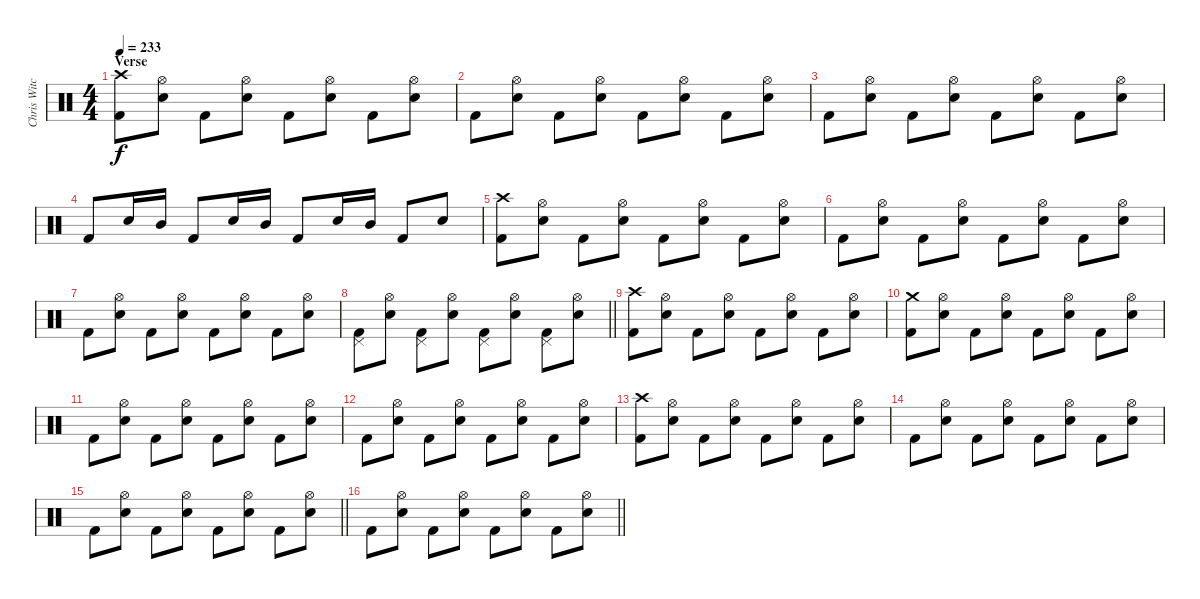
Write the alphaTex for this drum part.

\track ("Chris Witchunter" "Chris Witc") {instrument percussion}
\staff {score}
\articulation defaults
\ts (4 4)
\section ("" "Verse")
\tempo 233
\clef neutral
\ks c
("Crash high (hit)" "Kick (hit) 2").8{dy f} ("Hi-Hat (open)" "Snare (hit) 2").8 "Kick (hit) 2".8 ("Hi-Hat (open)" "Snare (hit) 2").8 "Kick (hit) 2".8 ("Hi-Hat (open)" "Snare (hit) 2").8 "Kick (hit) 2".8 ("Hi-Hat (open)" "Snare (hit) 2").8 |
"Kick (hit) 2".8 ("Hi-Hat (open)" "Snare (hit) 2").8 "Kick (hit) 2".8 ("Hi-Hat (open)" "Snare (hit) 2").8 "Kick (hit) 2".8 ("Hi-Hat (open)" "Snare (hit) 2").8 "Kick (hit) 2".8 ("Hi-Hat (open)" "Snare (hit) 2").8 |
"Kick (hit) 2".8 ("Hi-Hat (open)" "Snare (hit) 2").8 "Kick (hit) 2".8 ("Hi-Hat (open)" "Snare (hit) 2").8 "Kick (hit) 2".8 ("Hi-Hat (open)" "Snare (hit) 2").8 "Kick (hit) 2".8 ("Hi-Hat (open)" "Snare (hit) 2").8 |
"Kick (hit) 2".8 "Snare (hit) 2".16 "Mid Tom (hit)".16 "Kick (hit) 2".8 "Snare (hit) 2".16 "Mid Tom (hit)".16 "Kick (hit) 2".8 "Snare (hit) 2".16 "Mid Tom (hit)".16 "Kick (hit) 2".8 "Snare (hit) 2".8 |
("Crash high (hit)" "Kick (hit) 2").8 ("Hi-Hat (open)" "Snare (hit) 2").8 "Kick (hit) 2".8 ("Hi-Hat (open)" "Snare (hit) 2").8 "Kick (hit) 2".8 ("Hi-Hat (open)" "Snare (hit) 2").8 "Kick (hit) 2".8 ("Hi-Hat (open)" "Snare (hit) 2").8 |
"Kick (hit) 2".8 ("Hi-Hat (open)" "Snare (hit) 2").8 "Kick (hit) 2".8 ("Hi-Hat (open)" "Snare (hit) 2").8 "Kick (hit) 2".8 ("Hi-Hat (open)" "Snare (hit) 2").8 "Kick (hit) 2".8 ("Hi-Hat (open)" "Snare (hit) 2").8 |
"Kick (hit) 2".8 ("Hi-Hat (open)" "Snare (hit) 2").8 "Kick (hit) 2".8 ("Hi-Hat (open)" "Snare (hit) 2").8 "Kick (hit) 2".8 ("Hi-Hat (open)" "Snare (hit) 2").8 "Kick (hit) 2".8 ("Hi-Hat (open)" "Snare (hit) 2").8 |
\barLineRight lightlight
("Pedal Hi-Hat (hit)" "Kick (hit) 2").8 ("Hi-Hat (open)" "Snare (hit) 2").8 ("Pedal Hi-Hat (hit)" "Kick (hit) 2").8 ("Hi-Hat (open)" "Snare (hit) 2").8 ("Pedal Hi-Hat (hit)" "Kick (hit) 2").8 ("Hi-Hat (open)" "Snare (hit) 2").8 ("Pedal Hi-Hat (hit)" "Kick (hit) 2").8 ("Hi-Hat (open)" "Snare (hit) 2").8 |
("Crash high (hit)" "Kick (hit) 2").8 ("Hi-Hat (open)" "Snare (hit) 2").8 "Kick (hit) 2".8 ("Hi-Hat (open)" "Snare (hit) 2").8 "Kick (hit) 2".8 ("Hi-Hat (open)" "Snare (hit) 2").8 "Kick (hit) 2".8 ("Hi-Hat (open)" "Snare (hit) 2").8 |
("Crash medium (hit)" "Kick (hit) 2").8 ("Hi-Hat (open)" "Snare (hit) 2").8 "Kick (hit) 2".8 ("Hi-Hat (open)" "Snare (hit) 2").8 "Kick (hit) 2".8 ("Hi-Hat (open)" "Snare (hit) 2").8 "Kick (hit) 2".8 ("Hi-Hat (open)" "Snare (hit) 2").8 |
"Kick (hit) 2".8 ("Hi-Hat (open)" "Snare (hit) 2").8 "Kick (hit) 2".8 ("Hi-Hat (open)" "Snare (hit) 2").8 "Kick (hit) 2".8 ("Hi-Hat (open)" "Snare (hit) 2").8 "Kick (hit) 2".8 ("Hi-Hat (open)" "Snare (hit) 2").8 |
"Kick (hit) 2".8 ("Hi-Hat (open)" "Snare (hit) 2").8 "Kick (hit) 2".8 ("Hi-Hat (open)" "Snare (hit) 2").8 "Kick (hit) 2".8 ("Hi-Hat (open)" "Snare (hit) 2").8 "Kick (hit) 2".8 ("Hi-Hat (open)" "Snare (hit) 2").8 |
("Crash high (hit)" "Kick (hit) 2").8 ("Hi-Hat (open)" "Snare (hit) 2").8 "Kick (hit) 2".8 ("Hi-Hat (open)" "Snare (hit) 2").8 "Kick (hit) 2".8 ("Hi-Hat (open)" "Snare (hit) 2").8 "Kick (hit) 2".8 ("Hi-Hat (open)" "Snare (hit) 2").8 |
"Kick (hit) 2".8 ("Hi-Hat (open)" "Snare (hit) 2").8 "Kick (hit) 2".8 ("Hi-Hat (open)" "Snare (hit) 2").8 "Kick (hit) 2".8 ("Hi-Hat (open)" "Snare (hit) 2").8 "Kick (hit) 2".8 ("Hi-Hat (open)" "Snare (hit) 2").8 |
\barLineRight lightlight "Kick (hit) 2".8
("Hi-Hat (open)" "Snare (hit) 2").8 "Kick (hit) 2".8 ("Hi-Hat (open)" "Snare (hit) 2").8 "Kick (hit) 2".8 ("Hi-Hat (open)" "Snare (hit) 2").8 "Kick (hit) 2".8 ("Hi-Hat (open)" "Snare (hit) 2").8 |
\barLineRight lightlight "Kick (hit) 2".8
("Hi-Hat (open)" "Snare (hit) 2").8 "Kick (hit) 2".8 ("Hi-Hat (open)" "Snare (hit) 2").8 "Kick (hit) 2".8 ("Hi-Hat (open)" "Snare (hit) 2").8 "Kick (hit) 2".8 ("Hi-Hat (open)" "Snare (hit) 2").8
